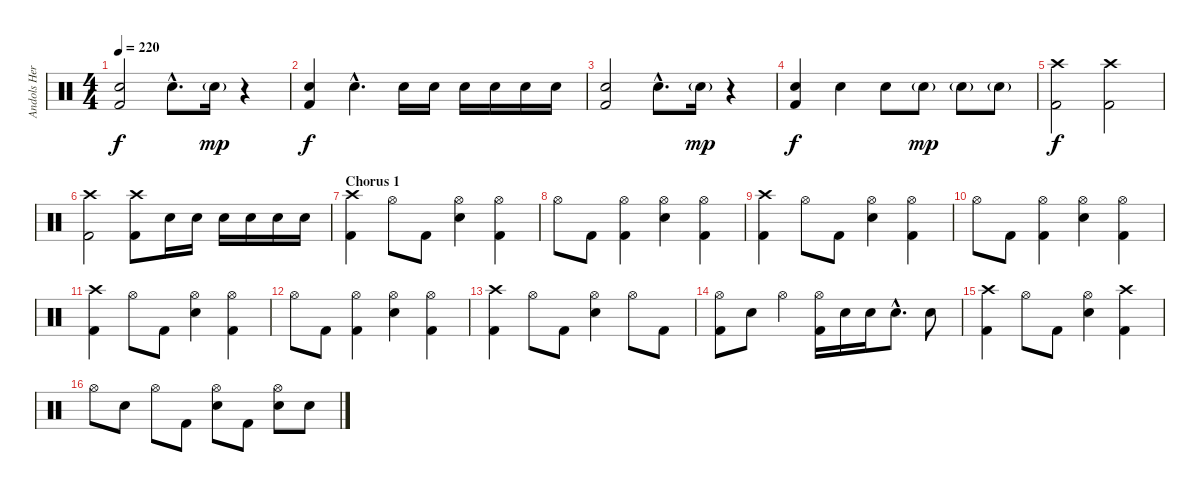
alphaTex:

\track ("Andols Herrick - Drums" "Andols Her") {instrument percussion}
\staff {score}
\articulation defaults
\ts (4 4)
\tempo 220
\clef neutral
\ks c
("Snare (hit) 2" "Kick (hit) 2").2{dy f} "Snare (hit) 2"{hac}.8{d} "Snare (hit) 2"{g}.16{dy mp} r.4 |
("Snare (hit) 2" "Kick (hit) 2").4{dy f} "Snare (hit) 2"{hac}.4{d} "Snare (hit) 2".16 "Snare (hit) 2".16 "Snare (hit) 2".16 "Snare (hit) 2".16 "Snare (hit) 2".16 "Snare (hit) 2".16 |
("Snare (hit) 2" "Kick (hit) 2").2 "Snare (hit) 2"{hac}.8{d} "Snare (hit) 2"{g}.16{dy mp} r.4 |
("Snare (hit) 2" "Kick (hit) 2").4{dy f} "Snare (hit) 2".4 "Snare (hit) 2".8 "Snare (hit) 2"{g}.8{dy mp} "Snare (hit) 2"{g}.8 "Snare (hit) 2"{g}.8 |
("Crash high (hit)" "Kick (hit) 2").2{dy f} ("Crash high (hit)" "Kick (hit) 2").2 |
("Crash high (hit)" "Kick (hit) 2").2 ("Crash high (hit)" "Kick (hit) 2").8 "Snare (hit) 2".16 "Snare (hit) 2".16 "Snare (hit) 2".16 "Snare (hit) 2".16 "Snare (hit) 2".16 "Snare (hit) 2".16 |
\section ("" "Chorus 1")
("Crash high (hit)" "Kick (hit) 2").4 "Hi-Hat (open)".8 "Kick (hit) 2".8 ("Hi-Hat (open)" "Snare (hit) 2").4 ("Hi-Hat (open)" "Kick (hit) 2").4 |
"Hi-Hat (open)".8 "Kick (hit) 2".8 ("Hi-Hat (open)" "Kick (hit) 2").4 ("Hi-Hat (open)" "Snare (hit) 2").4 ("Hi-Hat (open)" "Kick (hit) 2").4 |
("Crash high (hit)" "Kick (hit) 2").4 "Hi-Hat (open)".8 "Kick (hit) 2".8 ("Hi-Hat (open)" "Snare (hit) 2").4 ("Hi-Hat (open)" "Kick (hit) 2").4 |
"Hi-Hat (open)".8 "Kick (hit) 2".8 ("Hi-Hat (open)" "Kick (hit) 2").4 ("Hi-Hat (open)" "Snare (hit) 2").4 ("Hi-Hat (open)" "Kick (hit) 2").4 |
("Crash high (hit)" "Kick (hit) 2").4 "Hi-Hat (open)".8 "Kick (hit) 2".8 ("Hi-Hat (open)" "Snare (hit) 2").4 ("Hi-Hat (open)" "Kick (hit) 2").4 |
"Hi-Hat (open)".8 "Kick (hit) 2".8 ("Hi-Hat (open)" "Kick (hit) 2").4 ("Hi-Hat (open)" "Snare (hit) 2").4 ("Hi-Hat (open)" "Kick (hit) 2").4 |
("Crash high (hit)" "Kick (hit) 2").4 "Hi-Hat (open)".8 "Kick (hit) 2".8 ("Hi-Hat (open)" "Snare (hit) 2").4 "Hi-Hat (open)".8 "Kick (hit) 2".8 |
("Hi-Hat (open)" "Kick (hit) 2").8 "Snare (hit) 2".8 "Hi-Hat (open)".4 ("Hi-Hat (open)" "Kick (hit) 2").16 "Snare (hit) 2".16 "Snare (hit) 2".16 "Snare (hit) 2"{hac}.8{d} "Snare (hit) 2".8 |
("Crash high (hit)" "Kick (hit) 2").4 "Hi-Hat (open)".8 "Kick (hit) 2".8 ("Hi-Hat (open)" "Snare (hit) 2").4 ("Crash high (hit)" "Kick (hit) 2").4 |
"Hi-Hat (open)".8 "Snare (hit) 2".8 "Hi-Hat (open)".8 "Kick (hit) 2".8 ("Hi-Hat (open)" "Snare (hit) 2").8 "Kick (hit) 2".8 ("Hi-Hat (open)" "Snare (hit) 2").8 "Snare (hit) 2".8
